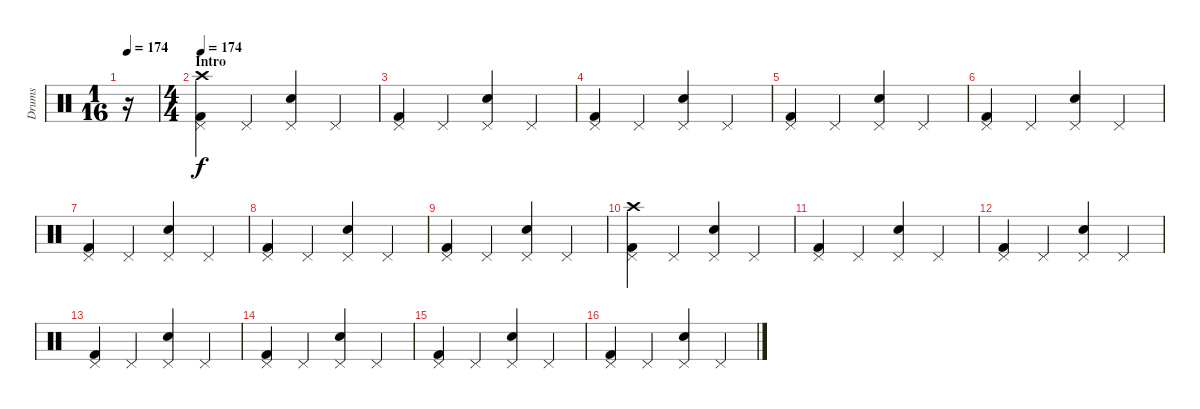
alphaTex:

\track ("Drums" "Drums") {instrument percussion}
\staff {score}
\articulation defaults
\ts (1 16)
\tempo 174
\clef neutral
\ks c
r.16{dy f} |
\ts (4 4)
\section ("" "Intro")
\tempo 174
("Kick (hit) 2" "Pedal Hi-Hat (hit)" "Crash high (hit)").4 "Pedal Hi-Hat (hit)".4 ("Snare (hit) 2" "Pedal Hi-Hat (hit)").4 "Pedal Hi-Hat (hit)".4 |
("Kick (hit) 2" "Pedal Hi-Hat (hit)").4 "Pedal Hi-Hat (hit)".4 ("Snare (hit) 2" "Pedal Hi-Hat (hit)").4 "Pedal Hi-Hat (hit)".4 |
("Kick (hit) 2" "Pedal Hi-Hat (hit)").4 "Pedal Hi-Hat (hit)".4 ("Snare (hit) 2" "Pedal Hi-Hat (hit)").4 "Pedal Hi-Hat (hit)".4 |
("Kick (hit) 2" "Pedal Hi-Hat (hit)").4 "Pedal Hi-Hat (hit)".4 ("Snare (hit) 2" "Pedal Hi-Hat (hit)").4 "Pedal Hi-Hat (hit)".4 |
("Kick (hit) 2" "Pedal Hi-Hat (hit)").4 "Pedal Hi-Hat (hit)".4 ("Snare (hit) 2" "Pedal Hi-Hat (hit)").4 "Pedal Hi-Hat (hit)".4 |
("Kick (hit) 2" "Pedal Hi-Hat (hit)").4 "Pedal Hi-Hat (hit)".4 ("Snare (hit) 2" "Pedal Hi-Hat (hit)").4 "Pedal Hi-Hat (hit)".4 |
("Kick (hit) 2" "Pedal Hi-Hat (hit)").4 "Pedal Hi-Hat (hit)".4 ("Snare (hit) 2" "Pedal Hi-Hat (hit)").4 "Pedal Hi-Hat (hit)".4 |
("Kick (hit) 2" "Pedal Hi-Hat (hit)").4 "Pedal Hi-Hat (hit)".4 ("Snare (hit) 2" "Pedal Hi-Hat (hit)").4 "Pedal Hi-Hat (hit)".4 |
("Kick (hit) 2" "Pedal Hi-Hat (hit)" "Crash high (hit)").4 "Pedal Hi-Hat (hit)".4 ("Snare (hit) 2" "Pedal Hi-Hat (hit)").4 "Pedal Hi-Hat (hit)".4 |
("Kick (hit) 2" "Pedal Hi-Hat (hit)").4 "Pedal Hi-Hat (hit)".4 ("Snare (hit) 2" "Pedal Hi-Hat (hit)").4 "Pedal Hi-Hat (hit)".4 |
("Kick (hit) 2" "Pedal Hi-Hat (hit)").4 "Pedal Hi-Hat (hit)".4 ("Snare (hit) 2" "Pedal Hi-Hat (hit)").4 "Pedal Hi-Hat (hit)".4 |
("Kick (hit) 2" "Pedal Hi-Hat (hit)").4 "Pedal Hi-Hat (hit)".4 ("Snare (hit) 2" "Pedal Hi-Hat (hit)").4 "Pedal Hi-Hat (hit)".4 |
("Kick (hit) 2" "Pedal Hi-Hat (hit)").4 "Pedal Hi-Hat (hit)".4 ("Snare (hit) 2" "Pedal Hi-Hat (hit)").4 "Pedal Hi-Hat (hit)".4 |
("Kick (hit) 2" "Pedal Hi-Hat (hit)").4 "Pedal Hi-Hat (hit)".4 ("Snare (hit) 2" "Pedal Hi-Hat (hit)").4 "Pedal Hi-Hat (hit)".4 |
("Kick (hit) 2" "Pedal Hi-Hat (hit)").4 "Pedal Hi-Hat (hit)".4 ("Snare (hit) 2" "Pedal Hi-Hat (hit)").4 "Pedal Hi-Hat (hit)".4
